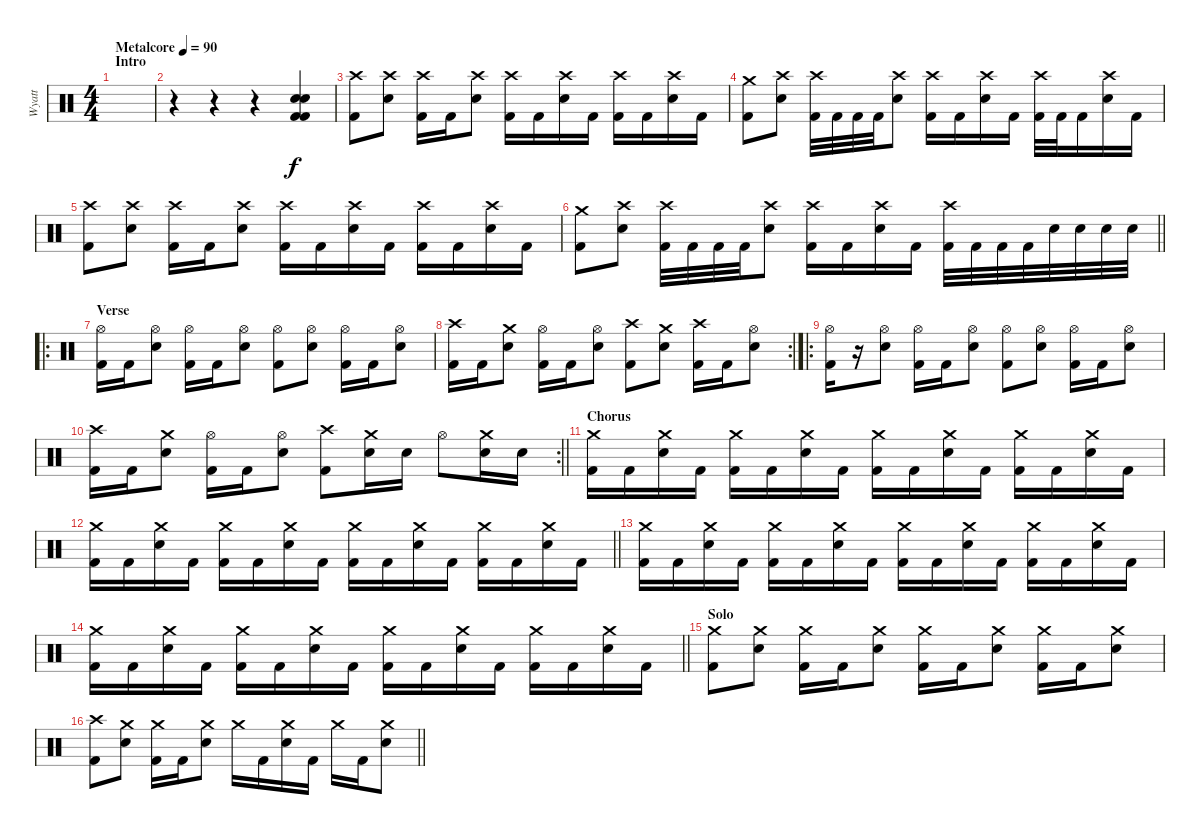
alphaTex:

\track ("Wyatt" "Wyatt") {instrument percussion}
\staff {score}
\articulation defaults
\ts (4 4)
\section ("" "Intro")
\tempo (90 "Metalcore")
\clef neutral
\ks c
|
r.4 r.4 r.4 ("Electric Snare (hit)" "Electric Snare (hit)" "Kick (hit) 2" "Kick (hit) 2").4 |
("Crash high (hit)" "Kick (hit) 2").8 ("Crash high (hit)" "Electric Snare (hit)").8 ("Crash high (hit)" "Kick (hit) 2").16 "Kick (hit) 2".16 ("Crash high (hit)" "Electric Snare (hit)").8 ("Crash high (hit)" "Kick (hit) 2").16 "Kick (hit) 2".16 ("Crash high (hit)" "Electric Snare (hit)").16 "Kick (hit) 2".16 ("Crash high (hit)" "Kick (hit) 2").16 "Kick (hit) 2".16 ("Crash high (hit)" "Electric Snare (hit)").16 "Kick (hit) 2".16 |
("Crash medium (hit)" "Kick (hit) 2").8 ("Crash high (hit)" "Electric Snare (hit)").8 ("Crash high (hit)" "Kick (hit) 2").32 "Kick (hit) 2".32 "Kick (hit) 2".32 "Kick (hit) 2".32 ("Crash high (hit)" "Electric Snare (hit)").8 ("Crash high (hit)" "Kick (hit) 2").16 "Kick (hit) 2".16 ("Crash high (hit)" "Electric Snare (hit)").16 "Kick (hit) 2".16 ("Crash high (hit)" "Kick (hit) 2").32 "Kick (hit) 2".32 "Kick (hit) 2".16 ("Crash high (hit)" "Electric Snare (hit)").16 "Kick (hit) 2".16 |
("Crash high (hit)" "Kick (hit) 2").8 ("Crash high (hit)" "Electric Snare (hit)").8 ("Crash high (hit)" "Kick (hit) 2").16 "Kick (hit) 2".16 ("Crash high (hit)" "Electric Snare (hit)").8 ("Crash high (hit)" "Kick (hit) 2").16 "Kick (hit) 2".16 ("Crash high (hit)" "Electric Snare (hit)").16 "Kick (hit) 2".16 ("Crash high (hit)" "Kick (hit) 2").16 "Kick (hit) 2".16 ("Crash high (hit)" "Electric Snare (hit)").16 "Kick (hit) 2".16 |
\barLineRight lightlight
("Crash medium (hit)" "Kick (hit) 2").8 ("Crash high (hit)" "Electric Snare (hit)").8 ("Crash high (hit)" "Kick (hit) 2").32 "Kick (hit) 2".32 "Kick (hit) 2".32 "Kick (hit) 2".32 ("Crash high (hit)" "Electric Snare (hit)").8 ("Crash high (hit)" "Kick (hit) 2").16 "Kick (hit) 2".16 ("Crash high (hit)" "Electric Snare (hit)").16 "Kick (hit) 2".16 ("Crash high (hit)" "Kick (hit) 2").32 "Kick (hit) 2".32 "Kick (hit) 2".32 "Kick (hit) 2".32 "Electric Snare (hit)".32 "Electric Snare (hit)".32 "Electric Snare (hit)".32 "Electric Snare (hit)".32 |
\ro
\section ("" "Verse")
("Hi-Hat (open)" "Kick (hit) 2").16 "Kick (hit) 2".16 ("Hi-Hat (open)" "Electric Snare (hit)").8 ("Hi-Hat (open)" "Kick (hit) 2").16 "Kick (hit) 2".16 ("Hi-Hat (open)" "Electric Snare (hit)").8 ("Hi-Hat (open)" "Kick (hit) 2").8 ("Hi-Hat (open)" "Electric Snare (hit)").8 ("Hi-Hat (open)" "Kick (hit) 2").16 "Kick (hit) 2".16 ("Hi-Hat (open)" "Electric Snare (hit)").8 |
\rc 2
("Crash high (hit)" "Kick (hit) 2").16 "Kick (hit) 2".16 ("Crash medium (hit)" "Electric Snare (hit)").8 ("Hi-Hat (open)" "Kick (hit) 2").16 "Kick (hit) 2".16 ("Hi-Hat (open)" "Electric Snare (hit)").8 ("Crash high (hit)" "Kick (hit) 2").8 ("Crash medium (hit)" "Electric Snare (hit)").8 ("Crash high (hit)" "Kick (hit) 2").16 "Kick (hit) 2".16 ("Hi-Hat (open)" "Electric Snare (hit)").8 |
\ro
("Hi-Hat (open)" "Kick (hit) 2").16 r.16 ("Hi-Hat (open)" "Electric Snare (hit)").8 ("Hi-Hat (open)" "Kick (hit) 2").16 "Kick (hit) 2".16 ("Hi-Hat (open)" "Electric Snare (hit)").8 ("Hi-Hat (open)" "Kick (hit) 2").8 ("Hi-Hat (open)" "Electric Snare (hit)").8 ("Hi-Hat (open)" "Kick (hit) 2").16 "Kick (hit) 2".16 ("Hi-Hat (open)" "Electric Snare (hit)").8 |
\rc 2
\barLineRight lightlight
("Crash high (hit)" "Kick (hit) 2").16 "Kick (hit) 2".16 ("Crash medium (hit)" "Electric Snare (hit)").8 ("Hi-Hat (open)" "Kick (hit) 2").16 "Kick (hit) 2".16 ("Hi-Hat (open)" "Electric Snare (hit)").8 ("Crash high (hit)" "Kick (hit) 2").8 ("Crash medium (hit)" "Electric Snare (hit)").16 "Electric Snare (hit)".16 "Hi-Hat (open)".8 ("Crash medium (hit)" "Electric Snare (hit)").16 "Electric Snare (hit)".16 |
\section ("" "Chorus")
("Crash medium (hit)" "Kick (hit) 2").16 "Kick (hit) 2".16 ("Crash medium (hit)" "Electric Snare (hit)").16 "Kick (hit) 2".16 ("Crash medium (hit)" "Kick (hit) 2").16 "Kick (hit) 2".16 ("Crash medium (hit)" "Electric Snare (hit)").16 "Kick (hit) 2".16 ("Crash medium (hit)" "Kick (hit) 2").16 "Kick (hit) 2".16 ("Crash medium (hit)" "Electric Snare (hit)").16 "Kick (hit) 2".16 ("Crash medium (hit)" "Kick (hit) 2").16 "Kick (hit) 2".16 ("Crash medium (hit)" "Electric Snare (hit)").16 "Kick (hit) 2".16 |
\barLineRight lightlight
("Crash medium (hit)" "Kick (hit) 2").16 "Kick (hit) 2".16 ("Crash medium (hit)" "Electric Snare (hit)").16 "Kick (hit) 2".16 ("Crash medium (hit)" "Kick (hit) 2").16 "Kick (hit) 2".16 ("Crash medium (hit)" "Electric Snare (hit)").16 "Kick (hit) 2".16 ("Crash medium (hit)" "Kick (hit) 2").16 "Kick (hit) 2".16 ("Crash medium (hit)" "Electric Snare (hit)").16 "Kick (hit) 2".16 ("Crash medium (hit)" "Kick (hit) 2").16 "Kick (hit) 2".16 ("Crash medium (hit)" "Electric Snare (hit)").16 "Kick (hit) 2".16 |
("Crash medium (hit)" "Kick (hit) 2").16 "Kick (hit) 2".16 ("Crash medium (hit)" "Electric Snare (hit)").16 "Kick (hit) 2".16 ("Crash medium (hit)" "Kick (hit) 2").16 "Kick (hit) 2".16 ("Crash medium (hit)" "Electric Snare (hit)").16 "Kick (hit) 2".16 ("Crash medium (hit)" "Kick (hit) 2").16 "Kick (hit) 2".16 ("Crash medium (hit)" "Electric Snare (hit)").16 "Kick (hit) 2".16 ("Crash medium (hit)" "Kick (hit) 2").16 "Kick (hit) 2".16 ("Crash medium (hit)" "Electric Snare (hit)").16 "Kick (hit) 2".16 |
\barLineRight lightlight
("Crash medium (hit)" "Kick (hit) 2").16 "Kick (hit) 2".16 ("Crash medium (hit)" "Electric Snare (hit)").16 "Kick (hit) 2".16 ("Crash medium (hit)" "Kick (hit) 2").16 "Kick (hit) 2".16 ("Crash medium (hit)" "Electric Snare (hit)").16 "Kick (hit) 2".16 ("Crash medium (hit)" "Kick (hit) 2").16 "Kick (hit) 2".16 ("Crash medium (hit)" "Electric Snare (hit)").16 "Kick (hit) 2".16 ("Crash medium (hit)" "Kick (hit) 2").16 "Kick (hit) 2".16 ("Crash medium (hit)" "Electric Snare (hit)").16 "Kick (hit) 2".16 |
\section ("" "Solo")
("Crash medium (hit)" "Kick (hit) 2").8 ("Crash medium (hit)" "Electric Snare (hit)").8 ("Crash medium (hit)" "Kick (hit) 2").16 "Kick (hit) 2".16 ("Crash medium (hit)" "Electric Snare (hit)").8 ("Crash medium (hit)" "Kick (hit) 2").16 "Kick (hit) 2".16 ("Crash medium (hit)" "Electric Snare (hit)").8 ("Crash medium (hit)" "Kick (hit) 2").16 "Kick (hit) 2".16 ("Crash medium (hit)" "Electric Snare (hit)").8 |
\barLineRight lightlight
("Crash high (hit)" "Kick (hit) 2").8 ("Crash medium (hit)" "Electric Snare (hit)").8 ("Crash medium (hit)" "Kick (hit) 2").16 "Kick (hit) 2".16 ("Crash medium (hit)" "Electric Snare (hit)").8 "Crash medium (hit)".16 "Kick (hit) 2".16 ("Crash medium (hit)" "Electric Snare (hit)").16 "Kick (hit) 2".16 "Crash medium (hit)".16 "Kick (hit) 2".16 ("Crash medium (hit)" "Electric Snare (hit)").8
